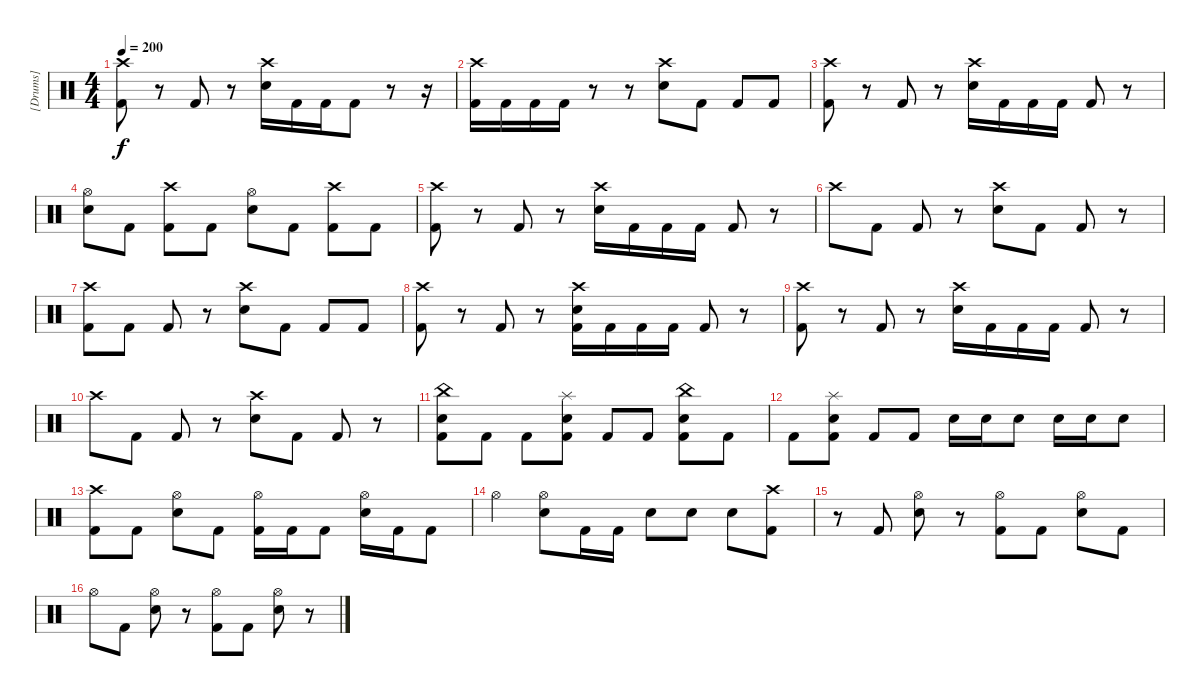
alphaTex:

\track ("[Drums]" "[Drums]") {instrument percussion}
\staff {score}
\articulation defaults
\ts (4 4)
\tempo 200
\clef neutral
\ks c
("Crash high (hit)" "Kick (hit) 2").8{dy f} r.8 "Kick (hit) 2".8 r.8 ("Crash high (hit)" "Electric Snare (hit)").16 "Kick (hit) 2".16 "Kick (hit) 2".16 "Kick (hit) 2".8 r.8 r.16 |
("Crash high (hit)" "Kick (hit) 2").16 "Kick (hit) 2".16 "Kick (hit) 2".16 "Kick (hit) 2".16 r.8 r.8 ("Crash high (hit)" "Electric Snare (hit)").8 "Kick (hit) 2".8 "Kick (hit) 2".8 "Kick (hit) 2".8 |
("Crash high (hit)" "Kick (hit) 2").8 r.8 "Kick (hit) 2".8 r.8 ("Crash high (hit)" "Electric Snare (hit)").16 "Kick (hit) 2".16 "Kick (hit) 2".16 "Kick (hit) 2".16 "Kick (hit) 2".8 r.8 |
("Hi-Hat (open)" "Electric Snare (hit)").8 "Kick (hit) 2".8 ("Crash high (hit)" "Kick (hit) 2").8 "Kick (hit) 2".8 ("Hi-Hat (open)" "Electric Snare (hit)").8 "Kick (hit) 2".8 ("Crash high (hit)" "Kick (hit) 2").8 "Kick (hit) 2".8 |
("Crash high (hit)" "Kick (hit) 2").8 r.8 "Kick (hit) 2".8 r.8 ("Crash high (hit)" "Electric Snare (hit)").16 "Kick (hit) 2".16 "Kick (hit) 2".16 "Kick (hit) 2".16 "Kick (hit) 2".8 r.8 |
"Crash high (hit)".8 "Kick (hit) 2".8 "Kick (hit) 2".8 r.8 ("Crash high (hit)" "Electric Snare (hit)").8 "Kick (hit) 2".8 "Kick (hit) 2".8 r.8 |
("Crash high (hit)" "Kick (hit) 2").8 "Kick (hit) 2".8 "Kick (hit) 2".8 r.8 ("Crash high (hit)" "Electric Snare (hit)").8 "Kick (hit) 2".8 "Kick (hit) 2".8 "Kick (hit) 2".8 |
("Crash high (hit)" "Kick (hit) 2").8 r.8 "Kick (hit) 2".8 r.8 ("Crash high (hit)" "Electric Snare (hit)" "Kick (hit) 2").16 "Kick (hit) 2".16 "Kick (hit) 2".16 "Kick (hit) 2".16 "Kick (hit) 2".8 r.8 |
("Crash high (hit)" "Kick (hit) 2").8 r.8 "Kick (hit) 2".8 r.8 ("Crash high (hit)" "Electric Snare (hit)").16 "Kick (hit) 2".16 "Kick (hit) 2".16 "Kick (hit) 2".16 "Kick (hit) 2".8 r.8 |
"Crash high (hit)".8 "Kick (hit) 2".8 "Kick (hit) 2".8 r.8 ("Crash high (hit)" "Electric Snare (hit)").8 "Kick (hit) 2".8 "Kick (hit) 2".8 r.8 |
("China (hit)" "Electric Snare (hit)" "Kick (hit) 2").8 "Kick (hit) 2".8 "Kick (hit) 2".8 ("Splash (hit)" "Electric Snare (hit)" "Kick (hit) 2").8 "Kick (hit) 2".8 "Kick (hit) 2".8 ("China (hit)" "Electric Snare (hit)" "Kick (hit) 2").8 "Kick (hit) 2".8 |
"Kick (hit) 2".8 ("Splash (hit)" "Electric Snare (hit)" "Kick (hit) 2").8 "Kick (hit) 2".8 "Kick (hit) 2".8 "Electric Snare (hit)".16 "Electric Snare (hit)".16 "Electric Snare (hit)".8 "Electric Snare (hit)".16 "Electric Snare (hit)".16 "Electric Snare (hit)".8 |
("Crash high (hit)" "Kick (hit) 2").8 "Kick (hit) 2".8 ("Hi-Hat (open)" "Electric Snare (hit)").8 "Kick (hit) 2".8 ("Hi-Hat (open)" "Kick (hit) 2").16 "Kick (hit) 2".16 "Kick (hit) 2".8 ("Hi-Hat (open)" "Electric Snare (hit)").16 "Kick (hit) 2".16 "Kick (hit) 2".8 |
"Hi-Hat (open)".4 ("Hi-Hat (open)" "Electric Snare (hit)").8 "Kick (hit) 2".16 "Kick (hit) 2".16 "Electric Snare (hit)".8 "Electric Snare (hit)".8 "Electric Snare (hit)".8 ("Crash high (hit)" "Kick (hit) 2").8 |
r.8 "Kick (hit) 2".8 ("Hi-Hat (open)" "Electric Snare (hit)").8 r.8 ("Hi-Hat (open)" "Kick (hit) 2").8 "Kick (hit) 2".8 ("Hi-Hat (open)" "Electric Snare (hit)").8 "Kick (hit) 2".8 |
"Hi-Hat (open)".8 "Kick (hit) 2".8 ("Hi-Hat (open)" "Electric Snare (hit)").8 r.8 ("Hi-Hat (open)" "Kick (hit) 2").8 "Kick (hit) 2".8 ("Hi-Hat (open)" "Electric Snare (hit)").8 r.8
